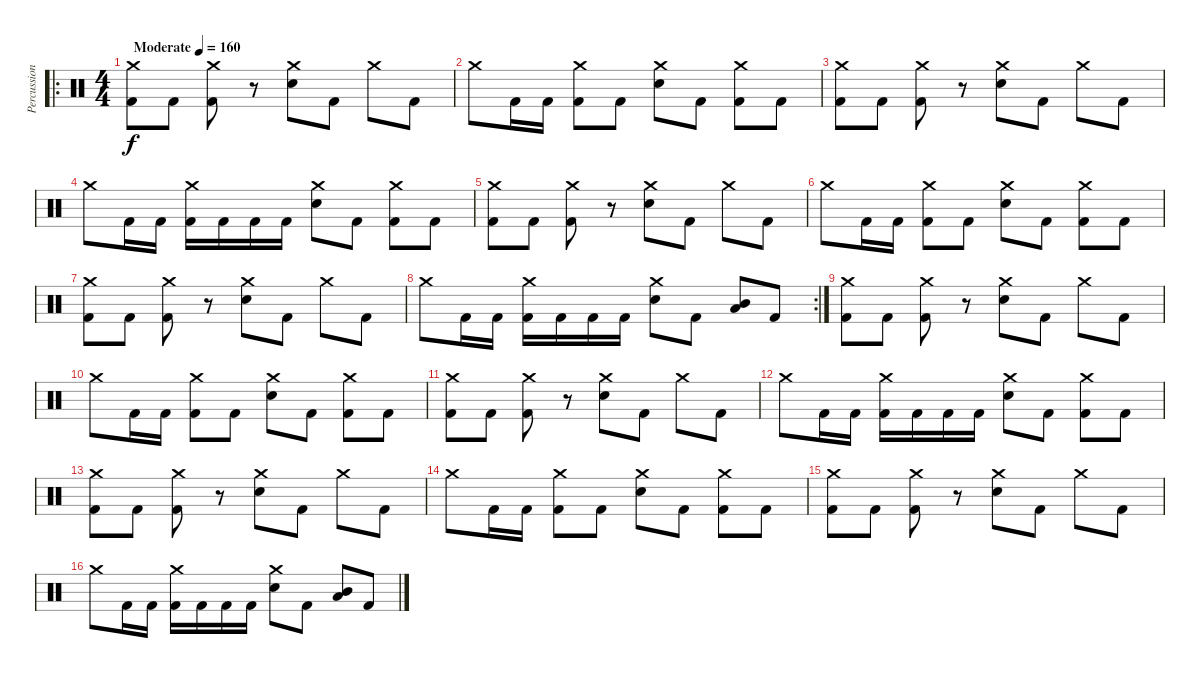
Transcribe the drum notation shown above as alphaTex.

\track ("Percussions" "Percussion") {instrument percussion}
\staff {score}
\articulation defaults
\ro
\ts (4 4)
\tempo (160 "Moderate")
\clef neutral
\ks c
("Kick (hit) 2" "Crash medium (hit)").8{dy f} "Kick (hit) 2".8 ("Kick (hit) 2" "Crash medium (hit)").8 r.8 ("Electric Snare (hit)" "Crash medium (hit)").8 "Kick (hit) 2".8 "Crash medium (hit)".8 "Kick (hit) 2".8 |
"Crash medium (hit)".8 "Kick (hit) 2".16 "Kick (hit) 2".16 ("Kick (hit) 2" "Crash medium (hit)").8 "Kick (hit) 2".8 ("Electric Snare (hit)" "Crash medium (hit)").8 "Kick (hit) 2".8 ("Kick (hit) 2" "Crash medium (hit)").8 "Kick (hit) 2".8 |
("Kick (hit) 2" "Crash medium (hit)").8 "Kick (hit) 2".8 ("Kick (hit) 2" "Crash medium (hit)").8 r.8 ("Electric Snare (hit)" "Crash medium (hit)").8 "Kick (hit) 2".8 "Crash medium (hit)".8 "Kick (hit) 2".8 |
"Crash medium (hit)".8 "Kick (hit) 2".16 "Kick (hit) 2".16 ("Kick (hit) 2" "Crash medium (hit)").16 "Kick (hit) 2".16 "Kick (hit) 2".16 "Kick (hit) 2".16 ("Electric Snare (hit)" "Crash medium (hit)").8 "Kick (hit) 2".8 ("Kick (hit) 2" "Crash medium (hit)").8 "Kick (hit) 2".8 |
("Kick (hit) 2" "Crash medium (hit)").8 "Kick (hit) 2".8 ("Kick (hit) 2" "Crash medium (hit)").8 r.8 ("Electric Snare (hit)" "Crash medium (hit)").8 "Kick (hit) 2".8 "Crash medium (hit)".8 "Kick (hit) 2".8 |
"Crash medium (hit)".8 "Kick (hit) 2".16 "Kick (hit) 2".16 ("Kick (hit) 2" "Crash medium (hit)").8 "Kick (hit) 2".8 ("Electric Snare (hit)" "Crash medium (hit)").8 "Kick (hit) 2".8 ("Kick (hit) 2" "Crash medium (hit)").8 "Kick (hit) 2".8 |
("Kick (hit) 2" "Crash medium (hit)").8 "Kick (hit) 2".8 ("Kick (hit) 2" "Crash medium (hit)").8 r.8 ("Electric Snare (hit)" "Crash medium (hit)").8 "Kick (hit) 2".8 "Crash medium (hit)".8 "Kick (hit) 2".8 |
\rc 2 "Crash medium (hit)".8 "Kick (hit) 2".16 "Kick (hit) 2".16
("Kick (hit) 2" "Crash medium (hit)").16 "Kick (hit) 2".16 "Kick (hit) 2".16 "Kick (hit) 2".16 ("Electric Snare (hit)" "Crash medium (hit)").8 "Kick (hit) 2".8 ("Low Tom (hit)" "Mid Tom (hit)").8 "Kick (hit) 2".8 |
("Kick (hit) 2" "Crash medium (hit)").8 "Kick (hit) 2".8 ("Kick (hit) 2" "Crash medium (hit)").8 r.8 ("Electric Snare (hit)" "Crash medium (hit)").8 "Kick (hit) 2".8 "Crash medium (hit)".8 "Kick (hit) 2".8 |
"Crash medium (hit)".8 "Kick (hit) 2".16 "Kick (hit) 2".16 ("Kick (hit) 2" "Crash medium (hit)").8 "Kick (hit) 2".8 ("Electric Snare (hit)" "Crash medium (hit)").8 "Kick (hit) 2".8 ("Kick (hit) 2" "Crash medium (hit)").8 "Kick (hit) 2".8 |
("Kick (hit) 2" "Crash medium (hit)").8 "Kick (hit) 2".8 ("Kick (hit) 2" "Crash medium (hit)").8 r.8 ("Electric Snare (hit)" "Crash medium (hit)").8 "Kick (hit) 2".8 "Crash medium (hit)".8 "Kick (hit) 2".8 |
"Crash medium (hit)".8 "Kick (hit) 2".16 "Kick (hit) 2".16 ("Kick (hit) 2" "Crash medium (hit)").16 "Kick (hit) 2".16 "Kick (hit) 2".16 "Kick (hit) 2".16 ("Electric Snare (hit)" "Crash medium (hit)").8 "Kick (hit) 2".8 ("Kick (hit) 2" "Crash medium (hit)").8 "Kick (hit) 2".8 |
("Kick (hit) 2" "Crash medium (hit)").8 "Kick (hit) 2".8 ("Kick (hit) 2" "Crash medium (hit)").8 r.8 ("Electric Snare (hit)" "Crash medium (hit)").8 "Kick (hit) 2".8 "Crash medium (hit)".8 "Kick (hit) 2".8 |
"Crash medium (hit)".8 "Kick (hit) 2".16 "Kick (hit) 2".16 ("Kick (hit) 2" "Crash medium (hit)").8 "Kick (hit) 2".8 ("Electric Snare (hit)" "Crash medium (hit)").8 "Kick (hit) 2".8 ("Kick (hit) 2" "Crash medium (hit)").8 "Kick (hit) 2".8 |
("Kick (hit) 2" "Crash medium (hit)").8 "Kick (hit) 2".8 ("Kick (hit) 2" "Crash medium (hit)").8 r.8 ("Electric Snare (hit)" "Crash medium (hit)").8 "Kick (hit) 2".8 "Crash medium (hit)".8 "Kick (hit) 2".8 |
"Crash medium (hit)".8 "Kick (hit) 2".16 "Kick (hit) 2".16 ("Kick (hit) 2" "Crash medium (hit)").16 "Kick (hit) 2".16 "Kick (hit) 2".16 "Kick (hit) 2".16 ("Electric Snare (hit)" "Crash medium (hit)").8 "Kick (hit) 2".8 ("Low Tom (hit)" "Mid Tom (hit)").8 "Kick (hit) 2".8
